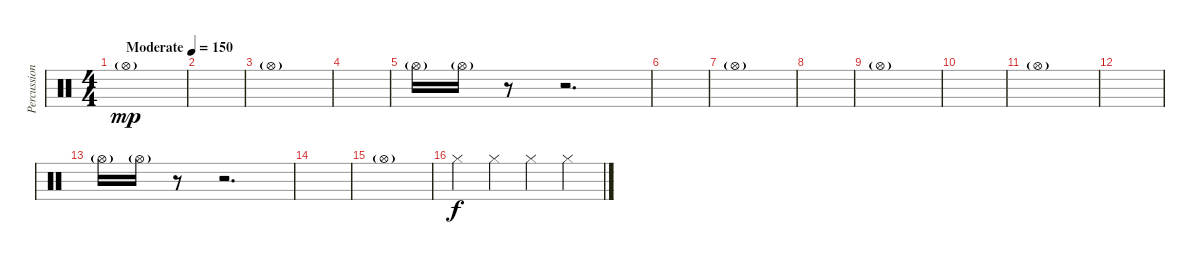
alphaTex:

\track ("Percussions" "Percussion") {instrument percussion}
\staff {score}
\articulation defaults
\ts (4 4)
\tempo (150 "Moderate")
\clef neutral
\ks c "Hi-Hat (open)"{g}.1{dy mp}
|
|
"Hi-Hat (open)"{g}.1 |
|
"Hi-Hat (open)"{g}.16 "Hi-Hat (open)"{g}.16 r.8 r.2{d} |
|
"Hi-Hat (open)"{g}.1 |
|
"Hi-Hat (open)"{g}.1 |
|
"Hi-Hat (open)"{g}.1 |
|
"Hi-Hat (open)"{g}.16 "Hi-Hat (open)"{g}.16 r.8 r.2{d} |
|
"Hi-Hat (open)"{g}.1 |
"Hi-Hat (closed)".4{dy f} "Hi-Hat (closed)".4 "Hi-Hat (closed)".4 "Hi-Hat (closed)".4
